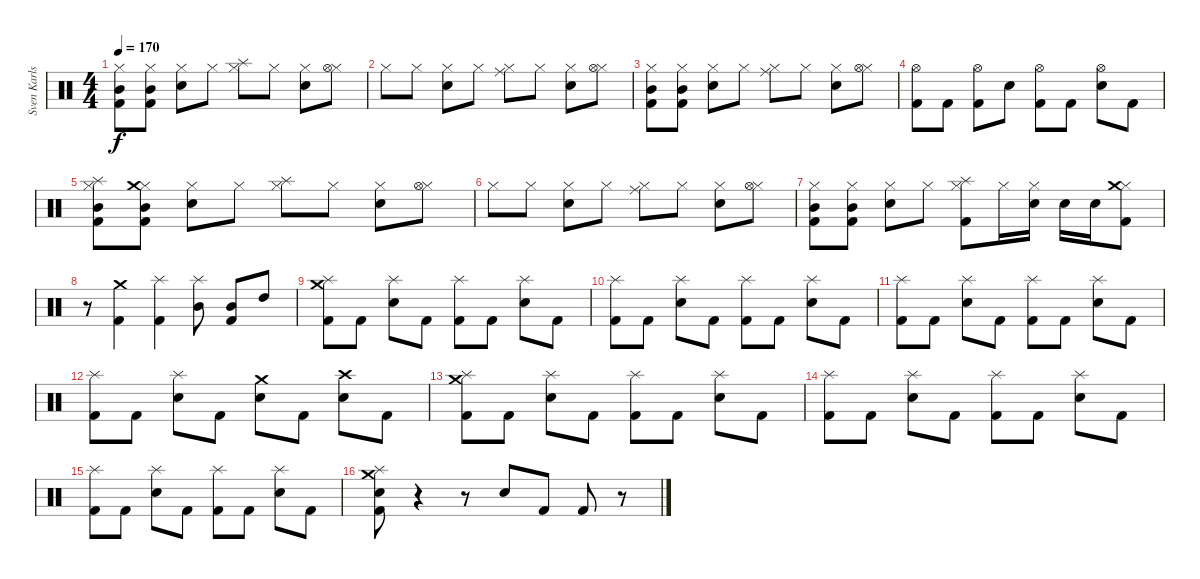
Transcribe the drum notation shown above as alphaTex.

\track ("Sven Karlsson" "Sven Karls") {instrument percussion}
\staff {score}
\articulation defaults
\ts (4 4)
\tempo 170
\clef neutral
\ks c
("Hi-Hat (closed)" "Mid Tom (hit)" "Kick (hit) 2").8{dy f} ("Hi-Hat (closed)" "Mid Tom (hit)" "Kick (hit) 2").8 ("Hi-Hat (closed)" "Electric Snare (hit)").8 "Hi-Hat (closed)".8 ("Hi-Hat (closed)" "Splash (hit)").8 "Hi-Hat (closed)".8 ("Hi-Hat (closed)" "Electric Snare (hit)").8 ("Hi-Hat (closed)" "Hi-Hat (open)").8 |
"Hi-Hat (closed)".8 "Hi-Hat (closed)".8 ("Hi-Hat (closed)" "Electric Snare (hit)").8 "Hi-Hat (closed)".8 ("Hi-Hat (closed)" "Ride (middle)").8 "Hi-Hat (closed)".8 ("Hi-Hat (closed)" "Electric Snare (hit)").8 ("Hi-Hat (closed)" "Hi-Hat (open)").8 |
("Hi-Hat (closed)" "Mid Tom (hit)" "Kick (hit) 2").8 ("Hi-Hat (closed)" "Mid Tom (hit)" "Kick (hit) 2").8 ("Hi-Hat (closed)" "Electric Snare (hit)").8 "Hi-Hat (closed)".8 ("Hi-Hat (closed)" "Ride (middle)").8 "Hi-Hat (closed)".8 ("Hi-Hat (closed)" "Electric Snare (hit)").8 ("Hi-Hat (closed)" "Hi-Hat (open)").8 |
("Hi-Hat (open)" "Kick (hit) 2").8 "Kick (hit) 2".8 ("Hi-Hat (open)" "Kick (hit) 2").8 "Electric Snare (hit)".8 ("Hi-Hat (open)" "Kick (hit) 2").8 "Kick (hit) 2".8 ("Hi-Hat (open)" "Electric Snare (hit)").8 "Kick (hit) 2".8 |
("Hi-Hat (closed)" "Splash (hit)" "Mid Tom (hit)" "Kick (hit) 2").8 ("Hi-Hat (closed)" "Crash medium (hit)" "Mid Tom (hit)" "Kick (hit) 2").8 ("Hi-Hat (closed)" "Electric Snare (hit)").8 "Hi-Hat (closed)".8 ("Hi-Hat (closed)" "Splash (hit)").8 "Hi-Hat (closed)".8 ("Hi-Hat (closed)" "Electric Snare (hit)").8 ("Hi-Hat (closed)" "Hi-Hat (open)").8 |
"Hi-Hat (closed)".8 "Hi-Hat (closed)".8 ("Hi-Hat (closed)" "Electric Snare (hit)").8 "Hi-Hat (closed)".8 ("Hi-Hat (closed)" "Ride (middle)").8 "Hi-Hat (closed)".8 ("Hi-Hat (closed)" "Electric Snare (hit)").8 ("Hi-Hat (closed)" "Hi-Hat (open)").8 |
("Hi-Hat (closed)" "Mid Tom (hit)" "Kick (hit) 2").8 ("Hi-Hat (closed)" "Mid Tom (hit)" "Kick (hit) 2").8 ("Hi-Hat (closed)" "Electric Snare (hit)").8 "Hi-Hat (closed)".8 ("Hi-Hat (closed)" "Splash (hit)" "Kick (hit) 2").8 "Hi-Hat (closed)".16 ("Hi-Hat (closed)" "Electric Snare (hit)").16 "Electric Snare (hit)".16 "Electric Snare (hit)".16 ("Hi-Hat (closed)" "Crash medium (hit)" "Kick (hit) 2").8 |
r.8 ("Crash medium (hit)" "Kick (hit) 2").4 ("Splash (hit)" "Kick (hit) 2").4 ("Splash (hit)" "Mid Tom (hit)").8 ("Mid Tom (hit)" "Kick (hit) 2").8 "High Tom (hit)".8 |
("Splash (hit)" "Crash medium (hit)" "Kick (hit) 2").8 "Kick (hit) 2".8 ("Splash (hit)" "Electric Snare (hit)").8 "Kick (hit) 2".8 ("Splash (hit)" "Kick (hit) 2").8 "Kick (hit) 2".8 ("Splash (hit)" "Electric Snare (hit)").8 "Kick (hit) 2".8 |
("Splash (hit)" "Kick (hit) 2").8 "Kick (hit) 2".8 ("Splash (hit)" "Electric Snare (hit)").8 "Kick (hit) 2".8 ("Splash (hit)" "Kick (hit) 2").8 "Kick (hit) 2".8 ("Splash (hit)" "Electric Snare (hit)").8 "Kick (hit) 2".8 |
("Splash (hit)" "Kick (hit) 2").8 "Kick (hit) 2".8 ("Splash (hit)" "Electric Snare (hit)").8 "Kick (hit) 2".8 ("Splash (hit)" "Kick (hit) 2").8 "Kick (hit) 2".8 ("Splash (hit)" "Electric Snare (hit)").8 "Kick (hit) 2".8 |
("Splash (hit)" "Kick (hit) 2").8 "Kick (hit) 2".8 ("Splash (hit)" "Electric Snare (hit)").8 "Kick (hit) 2".8 ("Crash medium (hit)" "Electric Snare (hit)").8 "Kick (hit) 2".8 ("Crash high (hit)" "Electric Snare (hit)").8 "Kick (hit) 2".8 |
("Splash (hit)" "Crash medium (hit)" "Kick (hit) 2").8 "Kick (hit) 2".8 ("Splash (hit)" "Electric Snare (hit)").8 "Kick (hit) 2".8 ("Splash (hit)" "Kick (hit) 2").8 "Kick (hit) 2".8 ("Splash (hit)" "Electric Snare (hit)").8 "Kick (hit) 2".8 |
("Splash (hit)" "Kick (hit) 2").8 "Kick (hit) 2".8 ("Splash (hit)" "Electric Snare (hit)").8 "Kick (hit) 2".8 ("Splash (hit)" "Kick (hit) 2").8 "Kick (hit) 2".8 ("Splash (hit)" "Electric Snare (hit)").8 "Kick (hit) 2".8 |
("Splash (hit)" "Kick (hit) 2").8 "Kick (hit) 2".8 ("Splash (hit)" "Electric Snare (hit)").8 "Kick (hit) 2".8 ("Splash (hit)" "Kick (hit) 2").8 "Kick (hit) 2".8 ("Splash (hit)" "Electric Snare (hit)").8 "Kick (hit) 2".8 |
("Splash (hit)" "Crash medium (hit)" "Electric Snare (hit)" "Kick (hit) 2").8 r.4 r.8 "Electric Snare (hit)".8 "Kick (hit) 2".8 "Kick (hit) 2".8 r.8
